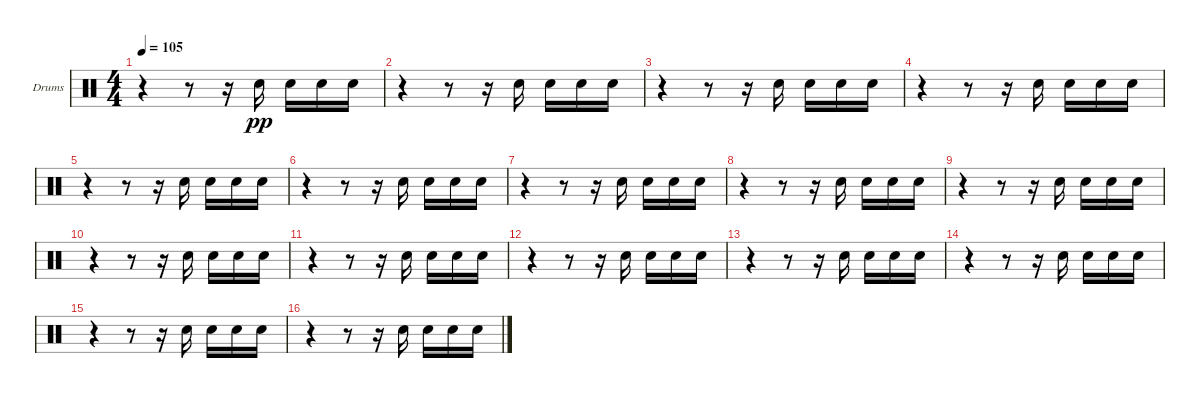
\defaultSystemsLayout 4
\bracketExtendMode groupsimilarinstruments
\firstSystemTrackNameOrientation horizontal
\otherSystemsTrackNameOrientation horizontal
\track ("Drumkit" "Drums") {instrument percussion}
\staff {score}
\articulation defaults
\ts (4 4)
\tempo 105
\clef neutral
\scale
0.472222
\ks c
r.4{dy pp} r.8 r.16 "Snare (hit) 2".16 "Snare (hit) 2".16 "Snare (hit) 2".16 "Snare (hit) 2".16 |
\scale
0.263889 r.4 r.8 r.16 "Snare (hit) 2".16 "Snare (hit) 2".16 "Snare (hit) 2".16 "Snare (hit) 2".16 |
\scale
0.263889 r.4 r.8 r.16 "Snare (hit) 2".16 "Snare (hit) 2".16 "Snare (hit) 2".16 "Snare (hit) 2".16 |
\scale
0.333333 r.4 r.8 r.16 "Snare (hit) 2".16 "Snare (hit) 2".16 "Snare (hit) 2".16 "Snare (hit) 2".16 |
\scale
0.333333 r.4 r.8 r.16 "Snare (hit) 2".16 "Snare (hit) 2".16 "Snare (hit) 2".16 "Snare (hit) 2".16 |
\scale
0.333333 r.4 r.8 r.16 "Snare (hit) 2".16 "Snare (hit) 2".16 "Snare (hit) 2".16 "Snare (hit) 2".16 |
\scale
0.333333 r.4 r.8 r.16 "Snare (hit) 2".16 "Snare (hit) 2".16 "Snare (hit) 2".16 "Snare (hit) 2".16 |
\scale
0.333333 r.4 r.8 r.16 "Snare (hit) 2".16 "Snare (hit) 2".16 "Snare (hit) 2".16 "Snare (hit) 2".16 |
\scale
0.333333 r.4 r.8 r.16 "Snare (hit) 2".16 "Snare (hit) 2".16 "Snare (hit) 2".16 "Snare (hit) 2".16 |
\scale
0.333333 r.4 r.8 r.16 "Snare (hit) 2".16 "Snare (hit) 2".16 "Snare (hit) 2".16 "Snare (hit) 2".16 |
\scale
0.333333 r.4 r.8 r.16 "Snare (hit) 2".16 "Snare (hit) 2".16 "Snare (hit) 2".16 "Snare (hit) 2".16 |
\scale
0.333333 r.4 r.8 r.16 "Snare (hit) 2".16 "Snare (hit) 2".16 "Snare (hit) 2".16 "Snare (hit) 2".16 |
\scale
0.333333 r.4 r.8 r.16 "Snare (hit) 2".16 "Snare (hit) 2".16 "Snare (hit) 2".16 "Snare (hit) 2".16 |
\scale
0.333333 r.4 r.8 r.16 "Snare (hit) 2".16 "Snare (hit) 2".16 "Snare (hit) 2".16 "Snare (hit) 2".16 |
\scale
0.333333 r.4 r.8 r.16 "Snare (hit) 2".16 "Snare (hit) 2".16 "Snare (hit) 2".16 "Snare (hit) 2".16 |
\scale
0.333333 r.4 r.8 r.16 "Snare (hit) 2".16 "Snare (hit) 2".16 "Snare (hit) 2".16 "Snare (hit) 2".16
